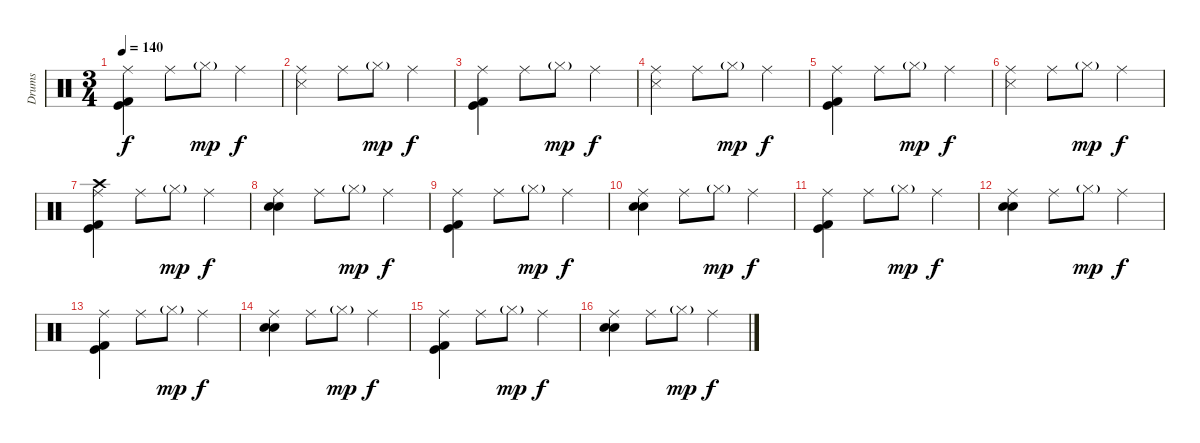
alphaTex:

\track ("Drums" "Drums") {instrument percussion}
\staff {score}
\articulation defaults
\ts (3 4)
\tempo 140
\clef neutral
\ks c
("Ride (middle)" "Kick (hit) 2" "Kick (hit)").4{dy f} "Ride (middle)".8 "Hi-Hat (closed)"{g}.8{dy mp} "Ride (middle)".4{dy f} |
("Ride (middle)" "Snare (side stick) 3").4 "Ride (middle)".8 "Hi-Hat (closed)"{g}.8{dy mp} "Ride (middle)".4{dy f} |
("Ride (middle)" "Kick (hit) 2" "Kick (hit)").4 "Ride (middle)".8 "Hi-Hat (closed)"{g}.8{dy mp} "Ride (middle)".4{dy f} |
("Ride (middle)" "Snare (side stick) 3").4 "Ride (middle)".8 "Hi-Hat (closed)"{g}.8{dy mp} "Ride (middle)".4{dy f} |
("Ride (middle)" "Kick (hit) 2" "Kick (hit)").4 "Ride (middle)".8 "Hi-Hat (closed)"{g}.8{dy mp} "Ride (middle)".4{dy f} |
("Ride (middle)" "Snare (side stick) 3").4 "Ride (middle)".8 "Hi-Hat (closed)"{g}.8{dy mp} "Ride (middle)".4{dy f} |
("Crash high (hit)" "Ride (middle)" "Kick (hit) 2" "Kick (hit)").4 "Ride (middle)".8 "Hi-Hat (closed)"{g}.8{dy mp} "Ride (middle)".4{dy f} |
("Ride (middle)" "Electric Snare (hit)" "Electric Snare (hit)").4 "Ride (middle)".8 "Hi-Hat (closed)"{g}.8{dy mp} "Ride (middle)".4{dy f} |
("Ride (middle)" "Kick (hit) 2" "Kick (hit)").4 "Ride (middle)".8 "Hi-Hat (closed)"{g}.8{dy mp} "Ride (middle)".4{dy f} |
("Ride (middle)" "Electric Snare (hit)" "Electric Snare (hit)").4 "Ride (middle)".8 "Hi-Hat (closed)"{g}.8{dy mp} "Ride (middle)".4{dy f} |
("Ride (middle)" "Kick (hit) 2" "Kick (hit)").4 "Ride (middle)".8 "Hi-Hat (closed)"{g}.8{dy mp} "Ride (middle)".4{dy f} |
("Ride (middle)" "Electric Snare (hit)" "Electric Snare (hit)").4 "Ride (middle)".8 "Hi-Hat (closed)"{g}.8{dy mp} "Ride (middle)".4{dy f} |
("Ride (middle)" "Kick (hit) 2" "Kick (hit)").4 "Ride (middle)".8 "Hi-Hat (closed)"{g}.8{dy mp} "Ride (middle)".4{dy f} |
("Ride (middle)" "Electric Snare (hit)" "Electric Snare (hit)").4 "Ride (middle)".8 "Hi-Hat (closed)"{g}.8{dy mp} "Ride (middle)".4{dy f} |
("Ride (middle)" "Kick (hit) 2" "Kick (hit)").4 "Ride (middle)".8 "Hi-Hat (closed)"{g}.8{dy mp} "Ride (middle)".4{dy f} |
("Ride (middle)" "Electric Snare (hit)" "Electric Snare (hit)").4 "Ride (middle)".8 "Hi-Hat (closed)"{g}.8{dy mp} "Ride (middle)".4{dy f}
